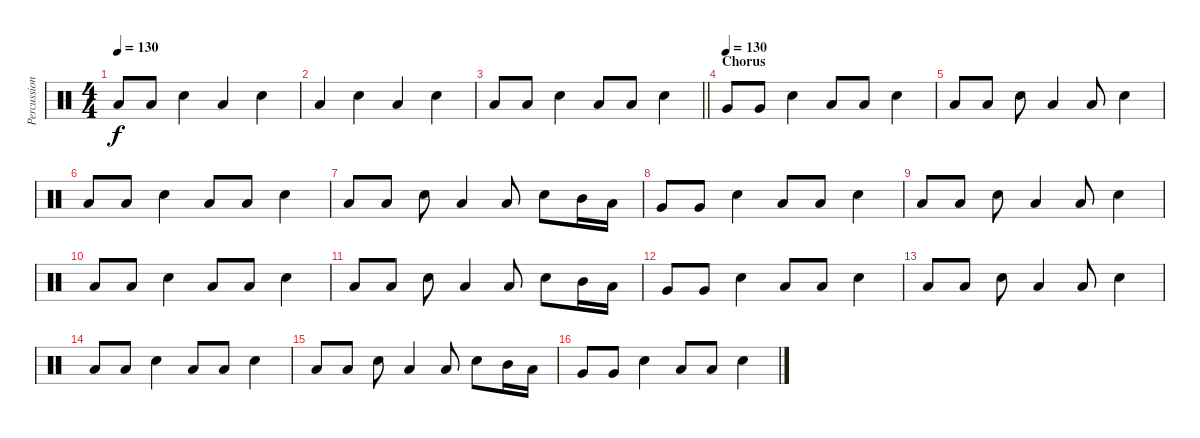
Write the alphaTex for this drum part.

\track ("Percussion 1" "Percussion") {instrument percussion}
\staff {score}
\articulation defaults
\ts (4 4)
\tempo 130
\clef neutral
\ks c "Low Floor Tom (hit)"{t}.8{dy f} "Low Floor Tom (hit)".8 "Electric Snare (hit)".4 "Low Floor Tom (hit)".4 "Electric Snare (hit)".4
|
"Low Floor Tom (hit)".4 "Electric Snare (hit)".4 "Low Floor Tom (hit)".4 "Electric Snare (hit)".4 |
\barLineRight lightlight "Low Floor Tom (hit)".8 "Low Floor Tom (hit)".8 "Electric Snare (hit)".4 "Low Floor Tom (hit)".8 "Low Floor Tom (hit)".8 "Electric Snare (hit)".4
|
\section ("" "Chorus")
\tempo (130)
"Very Low Tom (hit)".8 "Very Low Tom (hit)".8 "Electric Snare (hit)".4 "Low Floor Tom (hit)".8 "Low Floor Tom (hit)".8 "Electric Snare (hit)".4 |
"Low Floor Tom (hit)".8 "Low Floor Tom (hit)".8 "Electric Snare (hit)".8 "Low Floor Tom (hit)".4 "Low Floor Tom (hit)".8 "Electric Snare (hit)".4 |
"Low Floor Tom (hit)".8 "Low Floor Tom (hit)".8 "Electric Snare (hit)".4 "Low Floor Tom (hit)".8 "Low Floor Tom (hit)".8 "Electric Snare (hit)".4 |
"Low Floor Tom (hit)".8 "Low Floor Tom (hit)".8 "Electric Snare (hit)".8 "Low Floor Tom (hit)".4 "Low Floor Tom (hit)".8 "Electric Snare (hit)".8 "Mid Tom (hit)".16 "Low Tom (hit)".16 |
"Very Low Tom (hit)".8 "Very Low Tom (hit)".8 "Electric Snare (hit)".4 "Low Floor Tom (hit)".8 "Low Floor Tom (hit)".8 "Electric Snare (hit)".4 |
"Low Floor Tom (hit)".8 "Low Floor Tom (hit)".8 "Electric Snare (hit)".8 "Low Floor Tom (hit)".4 "Low Floor Tom (hit)".8 "Electric Snare (hit)".4 |
"Low Floor Tom (hit)".8 "Low Floor Tom (hit)".8 "Electric Snare (hit)".4 "Low Floor Tom (hit)".8 "Low Floor Tom (hit)".8 "Electric Snare (hit)".4 |
"Low Floor Tom (hit)".8 "Low Floor Tom (hit)".8 "Electric Snare (hit)".8 "Low Floor Tom (hit)".4 "Low Floor Tom (hit)".8 "Electric Snare (hit)".8 "Mid Tom (hit)".16 "Low Tom (hit)".16 |
"Very Low Tom (hit)".8 "Very Low Tom (hit)".8 "Electric Snare (hit)".4 "Low Floor Tom (hit)".8 "Low Floor Tom (hit)".8 "Electric Snare (hit)".4 |
"Low Floor Tom (hit)".8 "Low Floor Tom (hit)".8 "Electric Snare (hit)".8 "Low Floor Tom (hit)".4 "Low Floor Tom (hit)".8 "Electric Snare (hit)".4 |
"Low Floor Tom (hit)".8 "Low Floor Tom (hit)".8 "Electric Snare (hit)".4 "Low Floor Tom (hit)".8 "Low Floor Tom (hit)".8 "Electric Snare (hit)".4 |
"Low Floor Tom (hit)".8 "Low Floor Tom (hit)".8 "Electric Snare (hit)".8 "Low Floor Tom (hit)".4 "Low Floor Tom (hit)".8 "Electric Snare (hit)".8 "Mid Tom (hit)".16 "Low Tom (hit)".16 |
"Very Low Tom (hit)".8 "Very Low Tom (hit)".8 "Electric Snare (hit)".4 "Low Floor Tom (hit)".8 "Low Floor Tom (hit)".8 "Electric Snare (hit)".4
